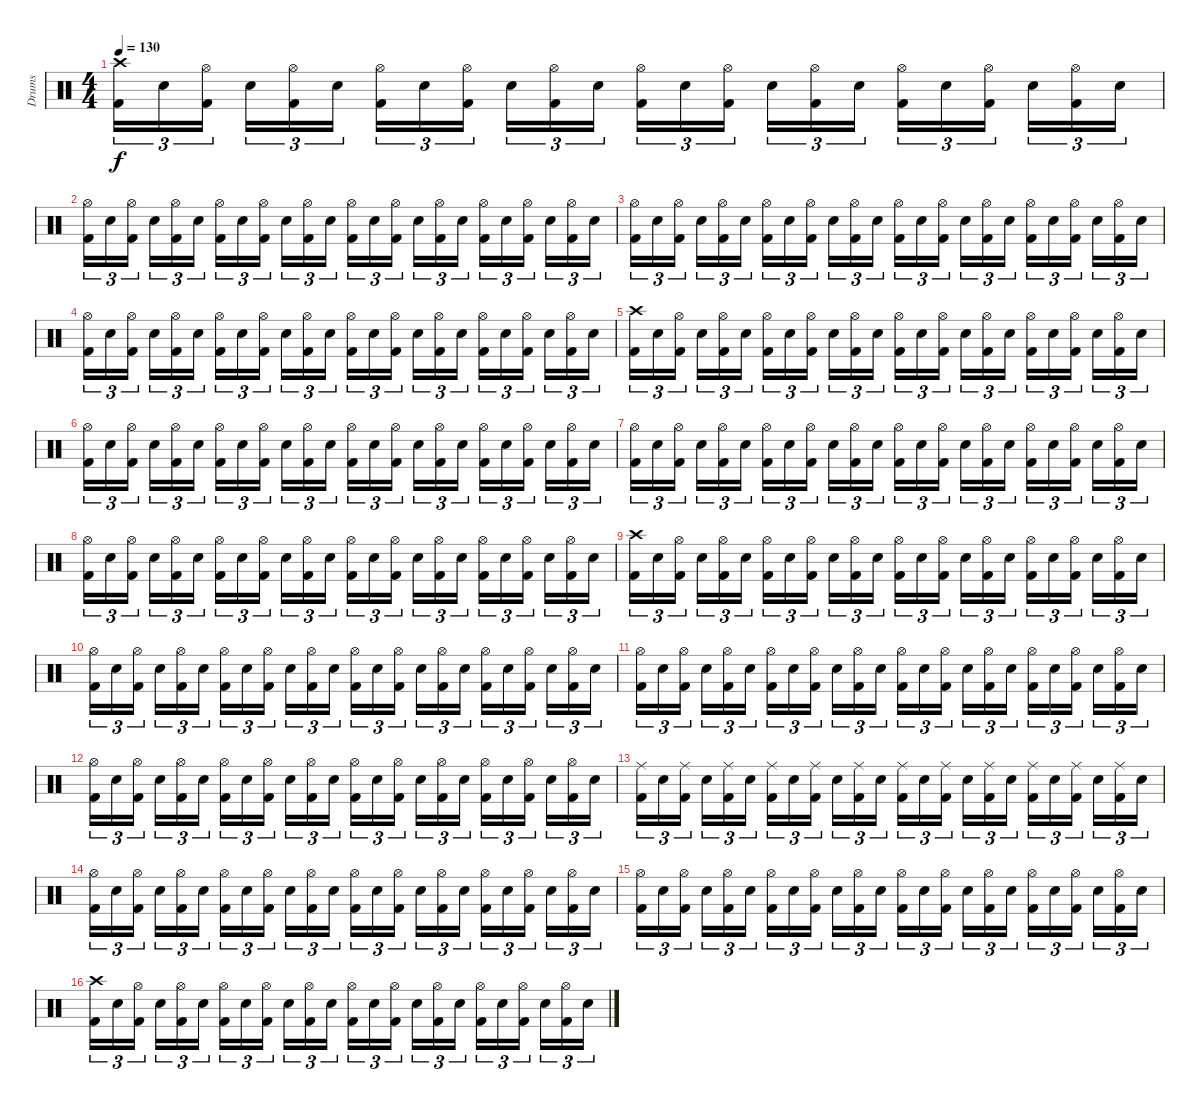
\track ("Drums" "Drums") {instrument percussion}
\staff {score}
\articulation defaults
\ts (4 4)
\tempo 130
\clef neutral
\ks c
("Crash high (hit)" "Kick (hit) 2").16{tu (3 2) dy f} "Electric Snare (hit)".16{tu (3 2)} ("Hi-Hat (open)" "Kick (hit) 2").16{tu (3 2)} "Electric Snare (hit)".16{tu (3 2)} ("Hi-Hat (open)" "Kick (hit) 2").16{tu (3 2)} "Electric Snare (hit)".16{tu (3 2)} ("Hi-Hat (open)" "Kick (hit) 2").16{tu (3 2)} "Electric Snare (hit)".16{tu (3 2)} ("Hi-Hat (open)" "Kick (hit) 2").16{tu (3 2)} "Electric Snare (hit)".16{tu (3 2)} ("Hi-Hat (open)" "Kick (hit) 2").16{tu (3 2)} "Electric Snare (hit)".16{tu (3 2)} ("Hi-Hat (open)" "Kick (hit) 2").16{tu (3 2)} "Electric Snare (hit)".16{tu (3 2)} ("Hi-Hat (open)" "Kick (hit) 2").16{tu (3 2)} "Electric Snare (hit)".16{tu (3 2)} ("Hi-Hat (open)" "Kick (hit) 2").16{tu (3 2)} "Electric Snare (hit)".16{tu (3 2)} ("Hi-Hat (open)" "Kick (hit) 2").16{tu (3 2)} "Electric Snare (hit)".16{tu (3 2)} ("Hi-Hat (open)" "Kick (hit) 2").16{tu (3 2)} "Electric Snare (hit)".16{tu (3 2)} ("Hi-Hat (open)" "Kick (hit) 2").16{tu (3 2)} "Electric Snare (hit)".16{tu (3 2)} |
("Hi-Hat (open)" "Kick (hit) 2").16{tu (3 2)} "Electric Snare (hit)".16{tu (3 2)} ("Hi-Hat (open)" "Kick (hit) 2").16{tu (3 2)} "Electric Snare (hit)".16{tu (3 2)} ("Hi-Hat (open)" "Kick (hit) 2").16{tu (3 2)} "Electric Snare (hit)".16{tu (3 2)} ("Hi-Hat (open)" "Kick (hit) 2").16{tu (3 2)} "Electric Snare (hit)".16{tu (3 2)} ("Hi-Hat (open)" "Kick (hit) 2").16{tu (3 2)} "Electric Snare (hit)".16{tu (3 2)} ("Hi-Hat (open)" "Kick (hit) 2").16{tu (3 2)} "Electric Snare (hit)".16{tu (3 2)} ("Hi-Hat (open)" "Kick (hit) 2").16{tu (3 2)} "Electric Snare (hit)".16{tu (3 2)} ("Hi-Hat (open)" "Kick (hit) 2").16{tu (3 2)} "Electric Snare (hit)".16{tu (3 2)} ("Hi-Hat (open)" "Kick (hit) 2").16{tu (3 2)} "Electric Snare (hit)".16{tu (3 2)} ("Hi-Hat (open)" "Kick (hit) 2").16{tu (3 2)} "Electric Snare (hit)".16{tu (3 2)} ("Hi-Hat (open)" "Kick (hit) 2").16{tu (3 2)} "Electric Snare (hit)".16{tu (3 2)} ("Hi-Hat (open)" "Kick (hit) 2").16{tu (3 2)} "Electric Snare (hit)".16{tu (3 2)} |
("Hi-Hat (open)" "Kick (hit) 2").16{tu (3 2)} "Electric Snare (hit)".16{tu (3 2)} ("Hi-Hat (open)" "Kick (hit) 2").16{tu (3 2)} "Electric Snare (hit)".16{tu (3 2)} ("Hi-Hat (open)" "Kick (hit) 2").16{tu (3 2)} "Electric Snare (hit)".16{tu (3 2)} ("Hi-Hat (open)" "Kick (hit) 2").16{tu (3 2)} "Electric Snare (hit)".16{tu (3 2)} ("Hi-Hat (open)" "Kick (hit) 2").16{tu (3 2)} "Electric Snare (hit)".16{tu (3 2)} ("Hi-Hat (open)" "Kick (hit) 2").16{tu (3 2)} "Electric Snare (hit)".16{tu (3 2)} ("Hi-Hat (open)" "Kick (hit) 2").16{tu (3 2)} "Electric Snare (hit)".16{tu (3 2)} ("Hi-Hat (open)" "Kick (hit) 2").16{tu (3 2)} "Electric Snare (hit)".16{tu (3 2)} ("Hi-Hat (open)" "Kick (hit) 2").16{tu (3 2)} "Electric Snare (hit)".16{tu (3 2)} ("Hi-Hat (open)" "Kick (hit) 2").16{tu (3 2)} "Electric Snare (hit)".16{tu (3 2)} ("Hi-Hat (open)" "Kick (hit) 2").16{tu (3 2)} "Electric Snare (hit)".16{tu (3 2)} ("Hi-Hat (open)" "Kick (hit) 2").16{tu (3 2)} "Electric Snare (hit)".16{tu (3 2)} |
("Hi-Hat (open)" "Kick (hit) 2").16{tu (3 2)} "Electric Snare (hit)".16{tu (3 2)} ("Hi-Hat (open)" "Kick (hit) 2").16{tu (3 2)} "Electric Snare (hit)".16{tu (3 2)} ("Hi-Hat (open)" "Kick (hit) 2").16{tu (3 2)} "Electric Snare (hit)".16{tu (3 2)} ("Hi-Hat (open)" "Kick (hit) 2").16{tu (3 2)} "Electric Snare (hit)".16{tu (3 2)} ("Hi-Hat (open)" "Kick (hit) 2").16{tu (3 2)} "Electric Snare (hit)".16{tu (3 2)} ("Hi-Hat (open)" "Kick (hit) 2").16{tu (3 2)} "Electric Snare (hit)".16{tu (3 2)} ("Hi-Hat (open)" "Kick (hit) 2").16{tu (3 2)} "Electric Snare (hit)".16{tu (3 2)} ("Hi-Hat (open)" "Kick (hit) 2").16{tu (3 2)} "Electric Snare (hit)".16{tu (3 2)} ("Hi-Hat (open)" "Kick (hit) 2").16{tu (3 2)} "Electric Snare (hit)".16{tu (3 2)} ("Hi-Hat (open)" "Kick (hit) 2").16{tu (3 2)} "Electric Snare (hit)".16{tu (3 2)} ("Hi-Hat (open)" "Kick (hit) 2").16{tu (3 2)} "Electric Snare (hit)".16{tu (3 2)} ("Hi-Hat (open)" "Kick (hit) 2").16{tu (3 2)} "Electric Snare (hit)".16{tu (3 2)} |
("Crash high (hit)" "Kick (hit) 2").16{tu (3 2)} "Electric Snare (hit)".16{tu (3 2)} ("Hi-Hat (open)" "Kick (hit) 2").16{tu (3 2)} "Electric Snare (hit)".16{tu (3 2)} ("Hi-Hat (open)" "Kick (hit) 2").16{tu (3 2)} "Electric Snare (hit)".16{tu (3 2)} ("Hi-Hat (open)" "Kick (hit) 2").16{tu (3 2)} "Electric Snare (hit)".16{tu (3 2)} ("Hi-Hat (open)" "Kick (hit) 2").16{tu (3 2)} "Electric Snare (hit)".16{tu (3 2)} ("Hi-Hat (open)" "Kick (hit) 2").16{tu (3 2)} "Electric Snare (hit)".16{tu (3 2)} ("Hi-Hat (open)" "Kick (hit) 2").16{tu (3 2)} "Electric Snare (hit)".16{tu (3 2)} ("Hi-Hat (open)" "Kick (hit) 2").16{tu (3 2)} "Electric Snare (hit)".16{tu (3 2)} ("Hi-Hat (open)" "Kick (hit) 2").16{tu (3 2)} "Electric Snare (hit)".16{tu (3 2)} ("Hi-Hat (open)" "Kick (hit) 2").16{tu (3 2)} "Electric Snare (hit)".16{tu (3 2)} ("Hi-Hat (open)" "Kick (hit) 2").16{tu (3 2)} "Electric Snare (hit)".16{tu (3 2)} ("Hi-Hat (open)" "Kick (hit) 2").16{tu (3 2)} "Electric Snare (hit)".16{tu (3 2)} |
("Hi-Hat (open)" "Kick (hit) 2").16{tu (3 2)} "Electric Snare (hit)".16{tu (3 2)} ("Hi-Hat (open)" "Kick (hit) 2").16{tu (3 2)} "Electric Snare (hit)".16{tu (3 2)} ("Hi-Hat (open)" "Kick (hit) 2").16{tu (3 2)} "Electric Snare (hit)".16{tu (3 2)} ("Hi-Hat (open)" "Kick (hit) 2").16{tu (3 2)} "Electric Snare (hit)".16{tu (3 2)} ("Hi-Hat (open)" "Kick (hit) 2").16{tu (3 2)} "Electric Snare (hit)".16{tu (3 2)} ("Hi-Hat (open)" "Kick (hit) 2").16{tu (3 2)} "Electric Snare (hit)".16{tu (3 2)} ("Hi-Hat (open)" "Kick (hit) 2").16{tu (3 2)} "Electric Snare (hit)".16{tu (3 2)} ("Hi-Hat (open)" "Kick (hit) 2").16{tu (3 2)} "Electric Snare (hit)".16{tu (3 2)} ("Hi-Hat (open)" "Kick (hit) 2").16{tu (3 2)} "Electric Snare (hit)".16{tu (3 2)} ("Hi-Hat (open)" "Kick (hit) 2").16{tu (3 2)} "Electric Snare (hit)".16{tu (3 2)} ("Hi-Hat (open)" "Kick (hit) 2").16{tu (3 2)} "Electric Snare (hit)".16{tu (3 2)} ("Hi-Hat (open)" "Kick (hit) 2").16{tu (3 2)} "Electric Snare (hit)".16{tu (3 2)} |
("Hi-Hat (open)" "Kick (hit) 2").16{tu (3 2)} "Electric Snare (hit)".16{tu (3 2)} ("Hi-Hat (open)" "Kick (hit) 2").16{tu (3 2)} "Electric Snare (hit)".16{tu (3 2)} ("Hi-Hat (open)" "Kick (hit) 2").16{tu (3 2)} "Electric Snare (hit)".16{tu (3 2)} ("Hi-Hat (open)" "Kick (hit) 2").16{tu (3 2)} "Electric Snare (hit)".16{tu (3 2)} ("Hi-Hat (open)" "Kick (hit) 2").16{tu (3 2)} "Electric Snare (hit)".16{tu (3 2)} ("Hi-Hat (open)" "Kick (hit) 2").16{tu (3 2)} "Electric Snare (hit)".16{tu (3 2)} ("Hi-Hat (open)" "Kick (hit) 2").16{tu (3 2)} "Electric Snare (hit)".16{tu (3 2)} ("Hi-Hat (open)" "Kick (hit) 2").16{tu (3 2)} "Electric Snare (hit)".16{tu (3 2)} ("Hi-Hat (open)" "Kick (hit) 2").16{tu (3 2)} "Electric Snare (hit)".16{tu (3 2)} ("Hi-Hat (open)" "Kick (hit) 2").16{tu (3 2)} "Electric Snare (hit)".16{tu (3 2)} ("Hi-Hat (open)" "Kick (hit) 2").16{tu (3 2)} "Electric Snare (hit)".16{tu (3 2)} ("Hi-Hat (open)" "Kick (hit) 2").16{tu (3 2)} "Electric Snare (hit)".16{tu (3 2)} |
("Hi-Hat (open)" "Kick (hit) 2").16{tu (3 2)} "Electric Snare (hit)".16{tu (3 2)} ("Hi-Hat (open)" "Kick (hit) 2").16{tu (3 2)} "Electric Snare (hit)".16{tu (3 2)} ("Hi-Hat (open)" "Kick (hit) 2").16{tu (3 2)} "Electric Snare (hit)".16{tu (3 2)} ("Hi-Hat (open)" "Kick (hit) 2").16{tu (3 2)} "Electric Snare (hit)".16{tu (3 2)} ("Hi-Hat (open)" "Kick (hit) 2").16{tu (3 2)} "Electric Snare (hit)".16{tu (3 2)} ("Hi-Hat (open)" "Kick (hit) 2").16{tu (3 2)} "Electric Snare (hit)".16{tu (3 2)} ("Hi-Hat (open)" "Kick (hit) 2").16{tu (3 2)} "Electric Snare (hit)".16{tu (3 2)} ("Hi-Hat (open)" "Kick (hit) 2").16{tu (3 2)} "Electric Snare (hit)".16{tu (3 2)} ("Hi-Hat (open)" "Kick (hit) 2").16{tu (3 2)} "Electric Snare (hit)".16{tu (3 2)} ("Hi-Hat (open)" "Kick (hit) 2").16{tu (3 2)} "Electric Snare (hit)".16{tu (3 2)} ("Hi-Hat (open)" "Kick (hit) 2").16{tu (3 2)} "Electric Snare (hit)".16{tu (3 2)} ("Hi-Hat (open)" "Kick (hit) 2").16{tu (3 2)} "Electric Snare (hit)".16{tu (3 2)} |
("Crash high (hit)" "Kick (hit) 2").16{tu (3 2)} "Electric Snare (hit)".16{tu (3 2)} ("Hi-Hat (open)" "Kick (hit) 2").16{tu (3 2)} "Electric Snare (hit)".16{tu (3 2)} ("Hi-Hat (open)" "Kick (hit) 2").16{tu (3 2)} "Electric Snare (hit)".16{tu (3 2)} ("Hi-Hat (open)" "Kick (hit) 2").16{tu (3 2)} "Electric Snare (hit)".16{tu (3 2)} ("Hi-Hat (open)" "Kick (hit) 2").16{tu (3 2)} "Electric Snare (hit)".16{tu (3 2)} ("Hi-Hat (open)" "Kick (hit) 2").16{tu (3 2)} "Electric Snare (hit)".16{tu (3 2)} ("Hi-Hat (open)" "Kick (hit) 2").16{tu (3 2)} "Electric Snare (hit)".16{tu (3 2)} ("Hi-Hat (open)" "Kick (hit) 2").16{tu (3 2)} "Electric Snare (hit)".16{tu (3 2)} ("Hi-Hat (open)" "Kick (hit) 2").16{tu (3 2)} "Electric Snare (hit)".16{tu (3 2)} ("Hi-Hat (open)" "Kick (hit) 2").16{tu (3 2)} "Electric Snare (hit)".16{tu (3 2)} ("Hi-Hat (open)" "Kick (hit) 2").16{tu (3 2)} "Electric Snare (hit)".16{tu (3 2)} ("Hi-Hat (open)" "Kick (hit) 2").16{tu (3 2)} "Electric Snare (hit)".16{tu (3 2)} |
("Hi-Hat (open)" "Kick (hit) 2").16{tu (3 2)} "Electric Snare (hit)".16{tu (3 2)} ("Hi-Hat (open)" "Kick (hit) 2").16{tu (3 2)} "Electric Snare (hit)".16{tu (3 2)} ("Hi-Hat (open)" "Kick (hit) 2").16{tu (3 2)} "Electric Snare (hit)".16{tu (3 2)} ("Hi-Hat (open)" "Kick (hit) 2").16{tu (3 2)} "Electric Snare (hit)".16{tu (3 2)} ("Hi-Hat (open)" "Kick (hit) 2").16{tu (3 2)} "Electric Snare (hit)".16{tu (3 2)} ("Hi-Hat (open)" "Kick (hit) 2").16{tu (3 2)} "Electric Snare (hit)".16{tu (3 2)} ("Hi-Hat (open)" "Kick (hit) 2").16{tu (3 2)} "Electric Snare (hit)".16{tu (3 2)} ("Hi-Hat (open)" "Kick (hit) 2").16{tu (3 2)} "Electric Snare (hit)".16{tu (3 2)} ("Hi-Hat (open)" "Kick (hit) 2").16{tu (3 2)} "Electric Snare (hit)".16{tu (3 2)} ("Hi-Hat (open)" "Kick (hit) 2").16{tu (3 2)} "Electric Snare (hit)".16{tu (3 2)} ("Hi-Hat (open)" "Kick (hit) 2").16{tu (3 2)} "Electric Snare (hit)".16{tu (3 2)} ("Hi-Hat (open)" "Kick (hit) 2").16{tu (3 2)} "Electric Snare (hit)".16{tu (3 2)} |
("Hi-Hat (open)" "Kick (hit) 2").16{tu (3 2)} "Electric Snare (hit)".16{tu (3 2)} ("Hi-Hat (open)" "Kick (hit) 2").16{tu (3 2)} "Electric Snare (hit)".16{tu (3 2)} ("Hi-Hat (open)" "Kick (hit) 2").16{tu (3 2)} "Electric Snare (hit)".16{tu (3 2)} ("Hi-Hat (open)" "Kick (hit) 2").16{tu (3 2)} "Electric Snare (hit)".16{tu (3 2)} ("Hi-Hat (open)" "Kick (hit) 2").16{tu (3 2)} "Electric Snare (hit)".16{tu (3 2)} ("Hi-Hat (open)" "Kick (hit) 2").16{tu (3 2)} "Electric Snare (hit)".16{tu (3 2)} ("Hi-Hat (open)" "Kick (hit) 2").16{tu (3 2)} "Electric Snare (hit)".16{tu (3 2)} ("Hi-Hat (open)" "Kick (hit) 2").16{tu (3 2)} "Electric Snare (hit)".16{tu (3 2)} ("Hi-Hat (open)" "Kick (hit) 2").16{tu (3 2)} "Electric Snare (hit)".16{tu (3 2)} ("Hi-Hat (open)" "Kick (hit) 2").16{tu (3 2)} "Electric Snare (hit)".16{tu (3 2)} ("Hi-Hat (open)" "Kick (hit) 2").16{tu (3 2)} "Electric Snare (hit)".16{tu (3 2)} ("Hi-Hat (open)" "Kick (hit) 2").16{tu (3 2)} "Electric Snare (hit)".16{tu (3 2)} |
("Hi-Hat (open)" "Kick (hit) 2").16{tu (3 2)} "Electric Snare (hit)".16{tu (3 2)} ("Hi-Hat (open)" "Kick (hit) 2").16{tu (3 2)} "Electric Snare (hit)".16{tu (3 2)} ("Hi-Hat (open)" "Kick (hit) 2").16{tu (3 2)} "Electric Snare (hit)".16{tu (3 2)} ("Hi-Hat (open)" "Kick (hit) 2").16{tu (3 2)} "Electric Snare (hit)".16{tu (3 2)} ("Hi-Hat (open)" "Kick (hit) 2").16{tu (3 2)} "Electric Snare (hit)".16{tu (3 2)} ("Hi-Hat (open)" "Kick (hit) 2").16{tu (3 2)} "Electric Snare (hit)".16{tu (3 2)} ("Hi-Hat (open)" "Kick (hit) 2").16{tu (3 2)} "Electric Snare (hit)".16{tu (3 2)} ("Hi-Hat (open)" "Kick (hit) 2").16{tu (3 2)} "Electric Snare (hit)".16{tu (3 2)} ("Hi-Hat (open)" "Kick (hit) 2").16{tu (3 2)} "Electric Snare (hit)".16{tu (3 2)} ("Hi-Hat (open)" "Kick (hit) 2").16{tu (3 2)} "Electric Snare (hit)".16{tu (3 2)} ("Hi-Hat (open)" "Kick (hit) 2").16{tu (3 2)} "Electric Snare (hit)".16{tu (3 2)} ("Hi-Hat (open)" "Kick (hit) 2").16{tu (3 2)} "Electric Snare (hit)".16{tu (3 2)} |
("Ride (middle)" "Kick (hit) 2").16{tu (3 2)} "Electric Snare (hit)".16{tu (3 2)} ("Ride (middle)" "Kick (hit) 2").16{tu (3 2)} "Electric Snare (hit)".16{tu (3 2)} ("Ride (middle)" "Kick (hit) 2").16{tu (3 2)} "Electric Snare (hit)".16{tu (3 2)} ("Ride (middle)" "Kick (hit) 2").16{tu (3 2)} "Electric Snare (hit)".16{tu (3 2)} ("Ride (middle)" "Kick (hit) 2").16{tu (3 2)} "Electric Snare (hit)".16{tu (3 2)} ("Ride (middle)" "Kick (hit) 2").16{tu (3 2)} "Electric Snare (hit)".16{tu (3 2)} ("Ride (middle)" "Kick (hit) 2").16{tu (3 2)} "Electric Snare (hit)".16{tu (3 2)} ("Ride (middle)" "Kick (hit) 2").16{tu (3 2)} "Electric Snare (hit)".16{tu (3 2)} ("Ride (middle)" "Kick (hit) 2").16{tu (3 2)} "Electric Snare (hit)".16{tu (3 2)} ("Ride (middle)" "Kick (hit) 2").16{tu (3 2)} "Electric Snare (hit)".16{tu (3 2)} ("Ride (middle)" "Kick (hit) 2").16{tu (3 2)} "Electric Snare (hit)".16{tu (3 2)} ("Ride (middle)" "Kick (hit) 2").16{tu (3 2)} "Electric Snare (hit)".16{tu (3 2)} |
("Hi-Hat (open)" "Kick (hit) 2").16{tu (3 2)} "Electric Snare (hit)".16{tu (3 2)} ("Hi-Hat (open)" "Kick (hit) 2").16{tu (3 2)} "Electric Snare (hit)".16{tu (3 2)} ("Hi-Hat (open)" "Kick (hit) 2").16{tu (3 2)} "Electric Snare (hit)".16{tu (3 2)} ("Hi-Hat (open)" "Kick (hit) 2").16{tu (3 2)} "Electric Snare (hit)".16{tu (3 2)} ("Hi-Hat (open)" "Kick (hit) 2").16{tu (3 2)} "Electric Snare (hit)".16{tu (3 2)} ("Hi-Hat (open)" "Kick (hit) 2").16{tu (3 2)} "Electric Snare (hit)".16{tu (3 2)} ("Hi-Hat (open)" "Kick (hit) 2").16{tu (3 2)} "Electric Snare (hit)".16{tu (3 2)} ("Hi-Hat (open)" "Kick (hit) 2").16{tu (3 2)} "Electric Snare (hit)".16{tu (3 2)} ("Hi-Hat (open)" "Kick (hit) 2").16{tu (3 2)} "Electric Snare (hit)".16{tu (3 2)} ("Hi-Hat (open)" "Kick (hit) 2").16{tu (3 2)} "Electric Snare (hit)".16{tu (3 2)} ("Hi-Hat (open)" "Kick (hit) 2").16{tu (3 2)} "Electric Snare (hit)".16{tu (3 2)} ("Hi-Hat (open)" "Kick (hit) 2").16{tu (3 2)} "Electric Snare (hit)".16{tu (3 2)} |
("Hi-Hat (open)" "Kick (hit) 2").16{tu (3 2)} "Electric Snare (hit)".16{tu (3 2)} ("Hi-Hat (open)" "Kick (hit) 2").16{tu (3 2)} "Electric Snare (hit)".16{tu (3 2)} ("Hi-Hat (open)" "Kick (hit) 2").16{tu (3 2)} "Electric Snare (hit)".16{tu (3 2)} ("Hi-Hat (open)" "Kick (hit) 2").16{tu (3 2)} "Electric Snare (hit)".16{tu (3 2)} ("Hi-Hat (open)" "Kick (hit) 2").16{tu (3 2)} "Electric Snare (hit)".16{tu (3 2)} ("Hi-Hat (open)" "Kick (hit) 2").16{tu (3 2)} "Electric Snare (hit)".16{tu (3 2)} ("Hi-Hat (open)" "Kick (hit) 2").16{tu (3 2)} "Electric Snare (hit)".16{tu (3 2)} ("Hi-Hat (open)" "Kick (hit) 2").16{tu (3 2)} "Electric Snare (hit)".16{tu (3 2)} ("Hi-Hat (open)" "Kick (hit) 2").16{tu (3 2)} "Electric Snare (hit)".16{tu (3 2)} ("Hi-Hat (open)" "Kick (hit) 2").16{tu (3 2)} "Electric Snare (hit)".16{tu (3 2)} ("Hi-Hat (open)" "Kick (hit) 2").16{tu (3 2)} "Electric Snare (hit)".16{tu (3 2)} ("Hi-Hat (open)" "Kick (hit) 2").16{tu (3 2)} "Electric Snare (hit)".16{tu (3 2)} |
("Crash high (hit)" "Kick (hit) 2").16{tu (3 2)} "Electric Snare (hit)".16{tu (3 2)} ("Hi-Hat (open)" "Kick (hit) 2").16{tu (3 2)} "Electric Snare (hit)".16{tu (3 2)} ("Hi-Hat (open)" "Kick (hit) 2").16{tu (3 2)} "Electric Snare (hit)".16{tu (3 2)} ("Hi-Hat (open)" "Kick (hit) 2").16{tu (3 2)} "Electric Snare (hit)".16{tu (3 2)} ("Hi-Hat (open)" "Kick (hit) 2").16{tu (3 2)} "Electric Snare (hit)".16{tu (3 2)} ("Hi-Hat (open)" "Kick (hit) 2").16{tu (3 2)} "Electric Snare (hit)".16{tu (3 2)} ("Hi-Hat (open)" "Kick (hit) 2").16{tu (3 2)} "Electric Snare (hit)".16{tu (3 2)} ("Hi-Hat (open)" "Kick (hit) 2").16{tu (3 2)} "Electric Snare (hit)".16{tu (3 2)} ("Hi-Hat (open)" "Kick (hit) 2").16{tu (3 2)} "Electric Snare (hit)".16{tu (3 2)} ("Hi-Hat (open)" "Kick (hit) 2").16{tu (3 2)} "Electric Snare (hit)".16{tu (3 2)} ("Hi-Hat (open)" "Kick (hit) 2").16{tu (3 2)} "Electric Snare (hit)".16{tu (3 2)} ("Hi-Hat (open)" "Kick (hit) 2").16{tu (3 2)} "Electric Snare (hit)".16{tu (3 2)}
